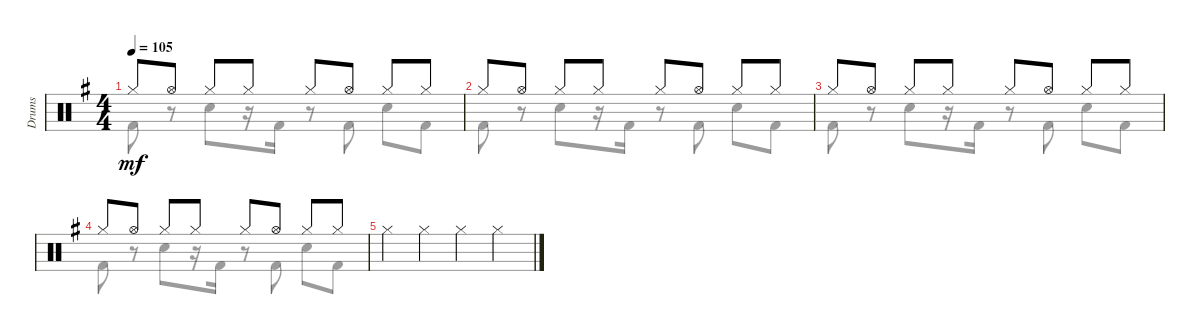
\track ("Drums" "Drums") {instrument percussion}
\staff {score}
\articulation defaults
\voice
\ts (4 4)
\tempo 105
\clef neutral
\ks eminor "Hi-Hat (closed)".8{dy mf} "Hi-Hat (open)".8 "Hi-Hat (closed)".8 "Hi-Hat (closed)".8 "Hi-Hat (closed)".8 "Hi-Hat (open)".8 "Hi-Hat (closed)".8 "Hi-Hat (closed)".8
|
"Hi-Hat (closed)".8 "Hi-Hat (open)".8 "Hi-Hat (closed)".8 "Hi-Hat (closed)".8 "Hi-Hat (closed)".8 "Hi-Hat (open)".8 "Hi-Hat (closed)".8 "Hi-Hat (closed)".8 |
"Hi-Hat (closed)".8 "Hi-Hat (open)".8 "Hi-Hat (closed)".8 "Hi-Hat (closed)".8 "Hi-Hat (closed)".8 "Hi-Hat (open)".8 "Hi-Hat (closed)".8 "Hi-Hat (closed)".8 |
"Hi-Hat (closed)".8 "Hi-Hat (open)".8 "Hi-Hat (closed)".8 "Hi-Hat (closed)".8 "Hi-Hat (closed)".8 "Hi-Hat (open)".8 "Hi-Hat (closed)".8 "Hi-Hat (closed)".8 |
"Hi-Hat (closed)".4 "Hi-Hat (closed)".4 "Hi-Hat (closed)".4 "Hi-Hat (closed)".4
\voice
\clef neutral
\ottava regular
\simile none
\ks eminor "Kick (hit) 2".8{dy mf}
r.8 "Snare (hit) 2".8 r.16 "Kick (hit) 2".16 r.8 "Kick (hit) 2".8 "Snare (hit) 2".8 "Kick (hit) 2".8 |
"Kick (hit) 2".8 r.8 "Snare (hit) 2".8 r.16 "Kick (hit) 2".16 r.8 "Kick (hit) 2".8 "Snare (hit) 2".8 "Kick (hit) 2".8 |
"Kick (hit) 2".8 r.8 "Snare (hit) 2".8 r.16 "Kick (hit) 2".16 r.8 "Kick (hit) 2".8 "Snare (hit) 2".8 "Kick (hit) 2".8 |
"Kick (hit) 2".8 r.8 "Snare (hit) 2".8 r.16 "Kick (hit) 2".16 r.8 "Kick (hit) 2".8 "Snare (hit) 2".8 "Kick (hit) 2".8 |
